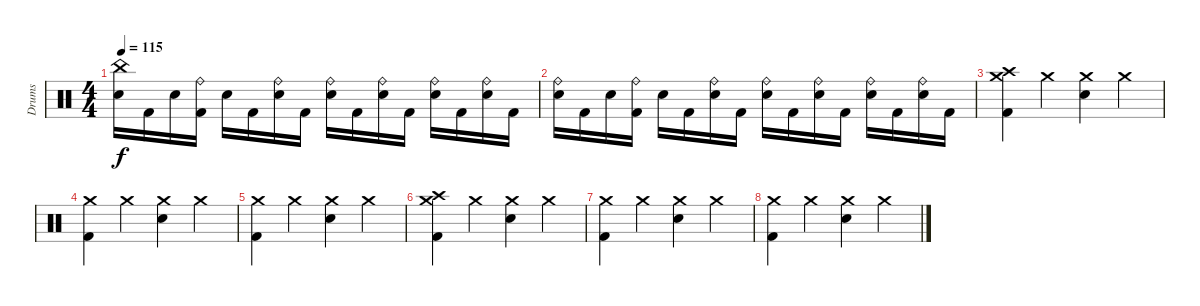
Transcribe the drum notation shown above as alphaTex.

\track ("Drums" "Drums") {instrument percussion}
\staff {score}
\articulation defaults
\ts (4 4)
\tempo 115
\clef neutral
\ks c
("China (hit)" "Snare (hit) 2").16{dy f} "Kick (hit) 2".16 "Snare (hit) 2".16 ("Ride (bell)" "Kick (hit) 2").16 "Snare (hit) 2".16 "Kick (hit) 2".16 ("Ride (bell)" "Snare (hit) 2").16 "Kick (hit) 2".16 ("Ride (bell)" "Snare (hit) 2").16 "Kick (hit) 2".16 ("Ride (bell)" "Snare (hit) 2").16 "Kick (hit) 2".16 ("Ride (bell)" "Snare (hit) 2").16 "Kick (hit) 2".16 ("Ride (bell)" "Snare (hit) 2").16 "Kick (hit) 2".16 |
("Ride (bell)" "Snare (hit) 2").16 "Kick (hit) 2".16 "Snare (hit) 2".16 ("Ride (bell)" "Kick (hit) 2").16 "Snare (hit) 2".16 "Kick (hit) 2".16 ("Ride (bell)" "Snare (hit) 2").16 "Kick (hit) 2".16 ("Ride (bell)" "Snare (hit) 2").16 "Kick (hit) 2".16 ("Ride (bell)" "Snare (hit) 2").16 "Kick (hit) 2".16 ("Ride (bell)" "Snare (hit) 2").16 "Kick (hit) 2".16 ("Ride (bell)" "Snare (hit) 2").16 "Kick (hit) 2".16 |
("Crash medium (hit)" "Crash high (hit)" "Kick (hit) 2").4 "Crash medium (hit)".4 ("Crash medium (hit)" "Snare (hit) 2").4 "Crash medium (hit)".4 |
("Crash medium (hit)" "Kick (hit) 2").4 "Crash medium (hit)".4 ("Crash medium (hit)" "Snare (hit) 2").4 "Crash medium (hit)".4 |
("Crash medium (hit)" "Kick (hit) 2").4 "Crash medium (hit)".4 ("Crash medium (hit)" "Snare (hit) 2").4 "Crash medium (hit)".4 |
("Crash medium (hit)" "Crash high (hit)" "Kick (hit) 2").4 "Crash medium (hit)".4 ("Crash medium (hit)" "Snare (hit) 2").4 "Crash medium (hit)".4 |
("Crash medium (hit)" "Kick (hit) 2").4 "Crash medium (hit)".4 ("Crash medium (hit)" "Snare (hit) 2").4 "Crash medium (hit)".4 |
("Crash medium (hit)" "Kick (hit) 2").4 "Crash medium (hit)".4 ("Crash medium (hit)" "Snare (hit) 2").4 "Crash medium (hit)".4
